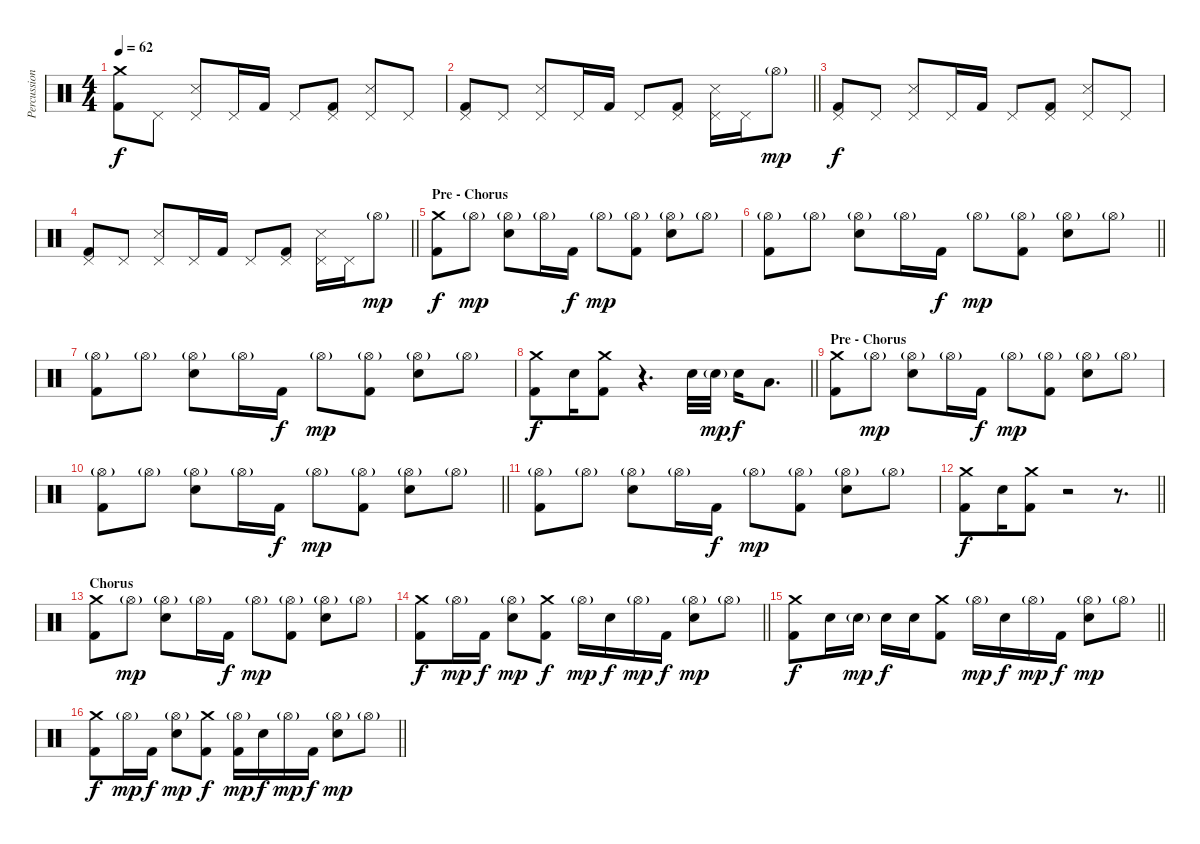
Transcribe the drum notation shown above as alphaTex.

\track ("Percussion" "Percussion") {instrument percussion}
\staff {score}
\articulation defaults
\ts (4 4)
\tempo 62
\clef neutral
\ks c
("Crash medium (hit)" "Kick (hit) 2").8{dy f} "Pedal Hi-Hat (hit)".8 ("Pedal Hi-Hat (hit)" "Snare (side stick) 3").8 "Pedal Hi-Hat (hit)".16 "Kick (hit) 2".16 "Pedal Hi-Hat (hit)".8 ("Pedal Hi-Hat (hit)" "Kick (hit) 2").8 ("Pedal Hi-Hat (hit)" "Snare (side stick) 3").8 "Pedal Hi-Hat (hit)".8 |
\barLineRight lightlight
("Pedal Hi-Hat (hit)" "Kick (hit) 2").8 "Pedal Hi-Hat (hit)".8 ("Pedal Hi-Hat (hit)" "Snare (side stick) 3").8 "Pedal Hi-Hat (hit)".16 "Kick (hit) 2".16 "Pedal Hi-Hat (hit)".8 ("Pedal Hi-Hat (hit)" "Kick (hit) 2").8 ("Pedal Hi-Hat (hit)" "Snare (side stick) 3").16 "Pedal Hi-Hat (hit)".16 "Hi-Hat (open)"{g}.8{dy mp} |
("Pedal Hi-Hat (hit)" "Kick (hit) 2").8{dy f} "Pedal Hi-Hat (hit)".8 ("Pedal Hi-Hat (hit)" "Snare (side stick) 3").8 "Pedal Hi-Hat (hit)".16 "Kick (hit) 2".16 "Pedal Hi-Hat (hit)".8 ("Pedal Hi-Hat (hit)" "Kick (hit) 2").8 ("Pedal Hi-Hat (hit)" "Snare (side stick) 3").8 "Pedal Hi-Hat (hit)".8 |
\barLineRight lightlight
("Pedal Hi-Hat (hit)" "Kick (hit) 2").8 "Pedal Hi-Hat (hit)".8 ("Pedal Hi-Hat (hit)" "Snare (side stick) 3").8 "Pedal Hi-Hat (hit)".16 "Kick (hit) 2".16 "Pedal Hi-Hat (hit)".8 ("Pedal Hi-Hat (hit)" "Kick (hit) 2").8 ("Pedal Hi-Hat (hit)" "Snare (side stick) 3").16 "Pedal Hi-Hat (hit)".16 "Hi-Hat (open)"{g}.8{dy mp} |
\section ("" "Pre - Chorus")
("Crash medium (hit)" "Kick (hit) 2").8{dy f} "Hi-Hat (open)"{g}.8{dy mp} ("Hi-Hat (open)"{g} "Electric Snare (hit)").8 "Hi-Hat (open)"{g}.16 "Kick (hit) 2".16{dy f} "Hi-Hat (open)"{g}.8{dy mp} ("Hi-Hat (open)"{g} "Kick (hit) 2").8 ("Hi-Hat (open)"{g} "Electric Snare (hit)").8 "Hi-Hat (open)"{g}.8 |
\barLineRight lightlight
("Hi-Hat (open)"{g} "Kick (hit) 2").8 "Hi-Hat (open)"{g}.8 ("Hi-Hat (open)"{g} "Electric Snare (hit)").8 "Hi-Hat (open)"{g}.16 "Kick (hit) 2".16{dy f} "Hi-Hat (open)"{g}.8{dy mp} ("Hi-Hat (open)"{g} "Kick (hit) 2").8 ("Hi-Hat (open)"{g} "Electric Snare (hit)").8 "Hi-Hat (open)"{g}.8 |
("Hi-Hat (open)"{g} "Kick (hit) 2").8 "Hi-Hat (open)"{g}.8 ("Hi-Hat (open)"{g} "Electric Snare (hit)").8 "Hi-Hat (open)"{g}.16 "Kick (hit) 2".16{dy f} "Hi-Hat (open)"{g}.8{dy mp} ("Hi-Hat (open)"{g} "Kick (hit) 2").8 ("Hi-Hat (open)"{g} "Electric Snare (hit)").8 "Hi-Hat (open)"{g}.8 |
\barLineRight lightlight
("Crash medium (hit)" "Kick (hit) 2").8{dy f} "Electric Snare (hit)".16 ("Crash medium (hit)" "Kick (hit) 2").8 r.4{d} "Electric Snare (hit)".32 "Electric Snare (hit)"{g}.32{dy mp} "Electric Snare (hit)".16{dy f} "Low Tom (hit)".8{d} |
\section ("" "Pre - Chorus")
("Crash medium (hit)" "Kick (hit) 2").8 "Hi-Hat (open)"{g}.8{dy mp} ("Hi-Hat (open)"{g} "Electric Snare (hit)").8 "Hi-Hat (open)"{g}.16 "Kick (hit) 2".16{dy f} "Hi-Hat (open)"{g}.8{dy mp} ("Hi-Hat (open)"{g} "Kick (hit) 2").8 ("Hi-Hat (open)"{g} "Electric Snare (hit)").8 "Hi-Hat (open)"{g}.8 |
\barLineRight lightlight
("Hi-Hat (open)"{g} "Kick (hit) 2").8 "Hi-Hat (open)"{g}.8 ("Hi-Hat (open)"{g} "Electric Snare (hit)").8 "Hi-Hat (open)"{g}.16 "Kick (hit) 2".16{dy f} "Hi-Hat (open)"{g}.8{dy mp} ("Hi-Hat (open)"{g} "Kick (hit) 2").8 ("Hi-Hat (open)"{g} "Electric Snare (hit)").8 "Hi-Hat (open)"{g}.8 |
("Hi-Hat (open)"{g} "Kick (hit) 2").8 "Hi-Hat (open)"{g}.8 ("Hi-Hat (open)"{g} "Electric Snare (hit)").8 "Hi-Hat (open)"{g}.16 "Kick (hit) 2".16{dy f} "Hi-Hat (open)"{g}.8{dy mp} ("Hi-Hat (open)"{g} "Kick (hit) 2").8 ("Hi-Hat (open)"{g} "Electric Snare (hit)").8 "Hi-Hat (open)"{g}.8 |
\barLineRight lightlight
("Crash medium (hit)" "Kick (hit) 2").8{dy f} "Electric Snare (hit)".16 ("Crash medium (hit)" "Kick (hit) 2").8 r.2 r.8{d} |
\section ("" "Chorus")
("Crash medium (hit)" "Kick (hit) 2").8 "Hi-Hat (open)"{g}.8{dy mp} ("Hi-Hat (open)"{g} "Electric Snare (hit)").8 "Hi-Hat (open)"{g}.16 "Kick (hit) 2".16{dy f} "Hi-Hat (open)"{g}.8{dy mp} ("Hi-Hat (open)"{g} "Kick (hit) 2").8 ("Hi-Hat (open)"{g} "Electric Snare (hit)").8 "Hi-Hat (open)"{g}.8 |
\barLineRight lightlight
("Crash medium (hit)" "Kick (hit) 2").8{dy f} "Hi-Hat (open)"{g}.16{dy mp} "Kick (hit) 2".16{dy f} ("Hi-Hat (open)"{g} "Electric Snare (hit)").8{dy mp} ("Crash medium (hit)" "Kick (hit) 2").8{dy f} "Hi-Hat (open)"{g}.16{dy mp} "Electric Snare (hit)".16{dy f} "Hi-Hat (open)"{g}.16{dy mp} "Kick (hit) 2".16{dy f} ("Hi-Hat (open)"{g} "Electric Snare (hit)").8{dy mp} "Hi-Hat (open)"{g}.8 |
\barLineRight lightlight
("Crash medium (hit)" "Kick (hit) 2").8{dy f} "Electric Snare (hit)".16 "Electric Snare (hit)"{g}.16{dy mp} "Electric Snare (hit)".16{dy f} "Electric Snare (hit)".16 ("Crash medium (hit)" "Kick (hit) 2").8 "Hi-Hat (open)"{g}.16{dy mp} "Electric Snare (hit)".16{dy f} "Hi-Hat (open)"{g}.16{dy mp} "Kick (hit) 2".16{dy f} ("Hi-Hat (open)"{g} "Electric Snare (hit)").8{dy mp} "Hi-Hat (open)"{g}.8 |
\barLineRight lightlight
("Crash medium (hit)" "Kick (hit) 2").8{dy f} "Hi-Hat (open)"{g}.16{dy mp} "Kick (hit) 2".16{dy f} ("Hi-Hat (open)"{g} "Electric Snare (hit)").8{dy mp} ("Crash medium (hit)" "Kick (hit) 2").8{dy f} ("Hi-Hat (open)"{g} "Kick (hit) 2").16{dy mp} "Electric Snare (hit)".16{dy f} "Hi-Hat (open)"{g}.16{dy mp} "Kick (hit) 2".16{dy f} ("Hi-Hat (open)"{g} "Electric Snare (hit)").8{dy mp} "Hi-Hat (open)"{g}.8
